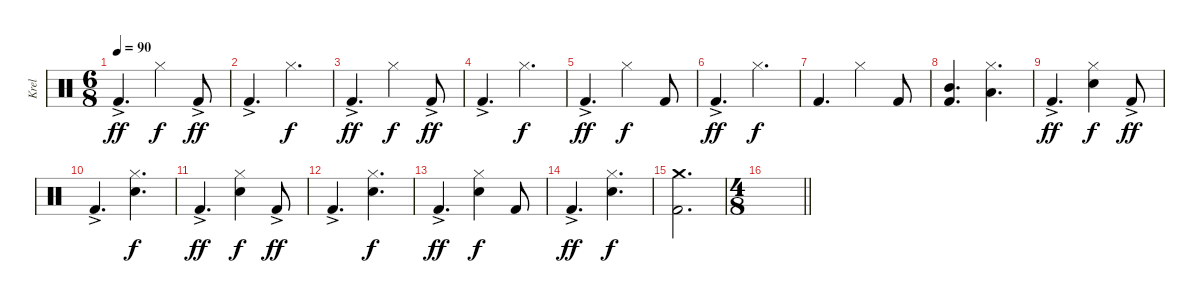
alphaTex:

\track ("Krel" "Krel") {instrument percussion}
\staff {score}
\articulation defaults
\ts (6 8)
\tempo 90
\clef neutral
\ks c "Kick (hit) 2"{ac}.4{d dy ff} "Hi-Hat (closed)".4{dy f} "Kick (hit) 2"{ac}.8{dy ff}
|
"Kick (hit) 2"{ac}.4{d} "Hi-Hat (closed)".4{d dy f} |
"Kick (hit) 2"{ac}.4{d dy ff} "Hi-Hat (closed)".4{dy f} "Kick (hit) 2"{ac}.8{dy ff} |
"Kick (hit) 2"{ac}.4{d} "Hi-Hat (closed)".4{d dy f} |
"Kick (hit) 2"{ac}.4{d dy ff} "Hi-Hat (closed)".4{dy f} "Kick (hit) 2".8 |
"Kick (hit) 2"{ac}.4{d dy ff} "Hi-Hat (closed)".4{d dy f} |
"Kick (hit) 2".4{d} "Hi-Hat (closed)".4 "Kick (hit) 2".8 |
("Mid Tom (hit)" "Kick (hit) 2").4{d} ("Hi-Hat (closed)" "Low Tom (hit)").4{d} |
"Kick (hit) 2"{ac}.4{d dy ff} ("Hi-Hat (closed)" "Snare (hit) 2").4{dy f} "Kick (hit) 2"{ac}.8{dy ff} |
"Kick (hit) 2"{ac}.4{d} ("Hi-Hat (closed)" "Snare (hit) 2").4{d dy f} |
"Kick (hit) 2"{ac}.4{d dy ff} ("Hi-Hat (closed)" "Snare (hit) 2").4{dy f} "Kick (hit) 2"{ac}.8{dy ff} |
"Kick (hit) 2"{ac}.4{d} ("Hi-Hat (closed)" "Snare (hit) 2").4{d dy f} |
"Kick (hit) 2"{ac}.4{d dy ff} ("Hi-Hat (closed)" "Snare (hit) 2").4{dy f} "Kick (hit) 2".8 |
"Kick (hit) 2"{ac}.4{d dy ff} ("Hi-Hat (closed)" "Snare (hit) 2").4{d dy f} |
("Crash medium (hit)" "Kick (hit) 2").2{d} |
\ts (4 8)
\barLineRight lightlight
